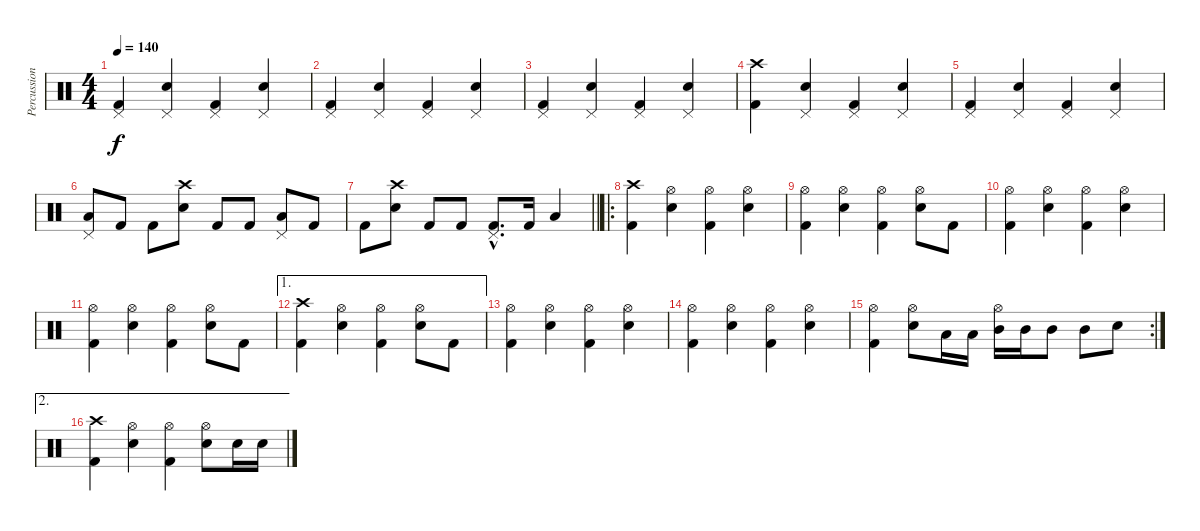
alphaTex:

\track ("Percussion" "Percussion") {instrument percussion}
\staff {score}
\articulation defaults
\ts (4 4)
\tempo 140
\clef neutral
\ks c
("Pedal Hi-Hat (hit)" "Kick (hit) 2").4{dy f} ("Pedal Hi-Hat (hit)" "Snare (hit) 2").4 ("Pedal Hi-Hat (hit)" "Kick (hit) 2").4 ("Pedal Hi-Hat (hit)" "Snare (hit) 2").4 |
("Pedal Hi-Hat (hit)" "Kick (hit) 2").4 ("Pedal Hi-Hat (hit)" "Snare (hit) 2").4 ("Pedal Hi-Hat (hit)" "Kick (hit) 2").4 ("Pedal Hi-Hat (hit)" "Snare (hit) 2").4 |
("Pedal Hi-Hat (hit)" "Kick (hit) 2").4 ("Pedal Hi-Hat (hit)" "Snare (hit) 2").4 ("Pedal Hi-Hat (hit)" "Kick (hit) 2").4 ("Pedal Hi-Hat (hit)" "Snare (hit) 2").4 |
("Crash high (hit)" "Kick (hit) 2").4 ("Pedal Hi-Hat (hit)" "Snare (hit) 2").4 ("Pedal Hi-Hat (hit)" "Kick (hit) 2").4 ("Pedal Hi-Hat (hit)" "Snare (hit) 2").4 |
("Pedal Hi-Hat (hit)" "Kick (hit) 2").4 ("Pedal Hi-Hat (hit)" "Snare (hit) 2").4 ("Pedal Hi-Hat (hit)" "Kick (hit) 2").4 ("Pedal Hi-Hat (hit)" "Snare (hit) 2").4 |
("Pedal Hi-Hat (hit)" "Low Tom (hit)").8 "Kick (hit) 2".8 "Kick (hit) 2".8 ("Crash high (hit)" "Snare (hit) 2").8 "Kick (hit) 2".8 "Kick (hit) 2".8 ("Pedal Hi-Hat (hit)" "Low Tom (hit)").8 "Kick (hit) 2".8 |
\barLineRight lightlight "Kick (hit) 2".8
("Crash high (hit)" "Snare (hit) 2").8 "Kick (hit) 2".8 "Kick (hit) 2".8 ("Pedal Hi-Hat (hit)"{hac} "Kick (hit) 2"{hac}).8{d} "Kick (hit) 2".16 "Low Tom (hit)".4 |
\ro
\section ("" "")
("Crash high (hit)" "Kick (hit) 2").4 ("Hi-Hat (open)" "Snare (hit) 2").4 ("Hi-Hat (open)" "Kick (hit) 2").4 ("Hi-Hat (open)" "Snare (hit) 2").4 |
("Hi-Hat (open)" "Kick (hit) 2").4 ("Hi-Hat (open)" "Snare (hit) 2").4 ("Hi-Hat (open)" "Kick (hit) 2").4 ("Hi-Hat (open)" "Snare (hit) 2").8 "Kick (hit) 2".8 |
("Hi-Hat (open)" "Kick (hit) 2").4 ("Hi-Hat (open)" "Snare (hit) 2").4 ("Hi-Hat (open)" "Kick (hit) 2").4 ("Hi-Hat (open)" "Snare (hit) 2").4 |
("Hi-Hat (open)" "Kick (hit) 2").4 ("Hi-Hat (open)" "Snare (hit) 2").4 ("Hi-Hat (open)" "Kick (hit) 2").4 ("Hi-Hat (open)" "Snare (hit) 2").8 "Kick (hit) 2".8 |
\ae 1
("Crash high (hit)" "Kick (hit) 2").4 ("Hi-Hat (open)" "Snare (hit) 2").4 ("Hi-Hat (open)" "Kick (hit) 2").4 ("Hi-Hat (open)" "Snare (hit) 2").8 "Kick (hit) 2".8 |
("Hi-Hat (open)" "Kick (hit) 2").4 ("Hi-Hat (open)" "Snare (hit) 2").4 ("Hi-Hat (open)" "Kick (hit) 2").4 ("Hi-Hat (open)" "Snare (hit) 2").4 |
("Hi-Hat (open)" "Kick (hit) 2").4 ("Hi-Hat (open)" "Snare (hit) 2").4 ("Hi-Hat (open)" "Kick (hit) 2").4 ("Hi-Hat (open)" "Snare (hit) 2").4 |
\rc 2
("Hi-Hat (open)" "Kick (hit) 2").4 ("Hi-Hat (open)" "Snare (hit) 2").8 "Low Tom (hit)".16 "Low Tom (hit)".16 ("Hi-Hat (open)" "Mid Tom (hit)").16 "Mid Tom (hit)".16 "Mid Tom (hit)".8 "Mid Tom (hit)".8 "Snare (hit) 2".8 |
\ae 2
("Crash high (hit)" "Kick (hit) 2").4 ("Hi-Hat (open)" "Snare (hit) 2").4 ("Hi-Hat (open)" "Kick (hit) 2").4 ("Hi-Hat (open)" "Snare (hit) 2").8 "Snare (hit) 2".16 "Snare (hit) 2".16
